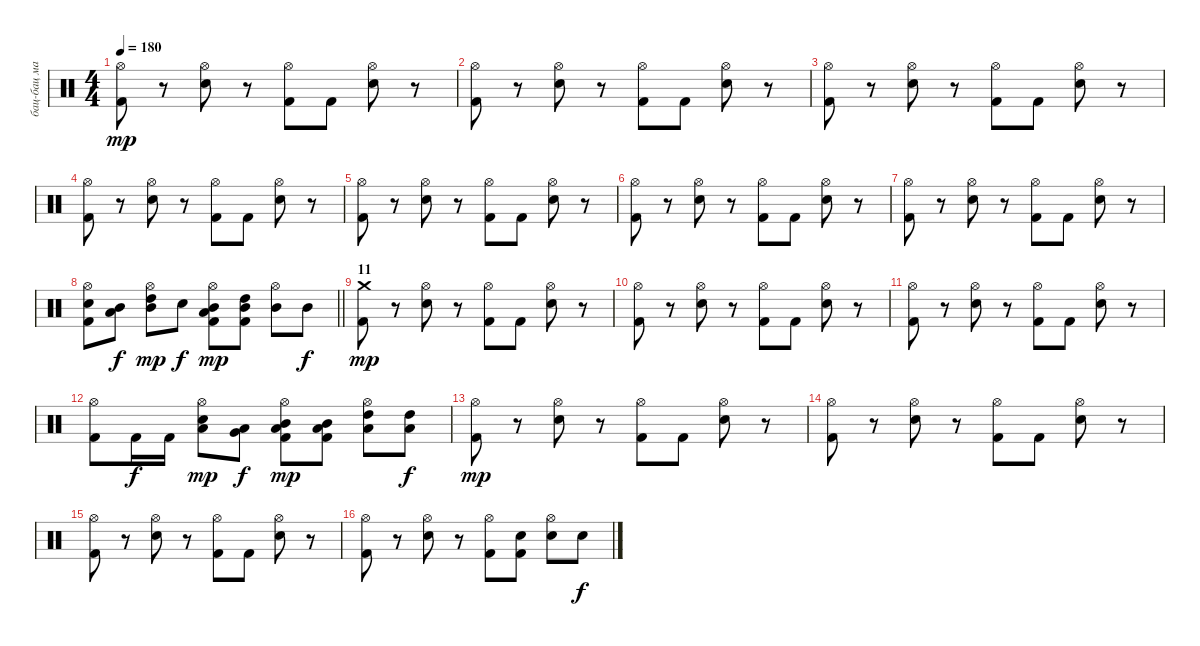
\track ("бац-бац машина" "бац-бац ма") {instrument percussion}
\staff {score}
\articulation defaults
\ts (4 4)
\tempo 180
\clef neutral
\ks c
("Hi-Hat (open)" "Kick (hit) 2").8{dy mp} r.8 ("Hi-Hat (open)" "Snare (hit) 2").8 r.8 ("Hi-Hat (open)" "Kick (hit) 2").8 "Kick (hit) 2".8 ("Hi-Hat (open)" "Snare (hit) 2").8 r.8 |
("Hi-Hat (open)" "Kick (hit) 2").8 r.8 ("Hi-Hat (open)" "Snare (hit) 2").8 r.8 ("Hi-Hat (open)" "Kick (hit) 2").8 "Kick (hit) 2".8 ("Hi-Hat (open)" "Snare (hit) 2").8 r.8 |
("Hi-Hat (open)" "Kick (hit) 2").8 r.8 ("Hi-Hat (open)" "Snare (hit) 2").8 r.8 ("Hi-Hat (open)" "Kick (hit) 2").8 "Kick (hit) 2".8 ("Hi-Hat (open)" "Snare (hit) 2").8 r.8 |
("Hi-Hat (open)" "Kick (hit) 2").8 r.8 ("Hi-Hat (open)" "Snare (hit) 2").8 r.8 ("Hi-Hat (open)" "Kick (hit) 2").8 "Kick (hit) 2".8 ("Hi-Hat (open)" "Snare (hit) 2").8 r.8 |
("Hi-Hat (open)" "Kick (hit) 2").8 r.8 ("Hi-Hat (open)" "Snare (hit) 2").8 r.8 ("Hi-Hat (open)" "Kick (hit) 2").8 "Kick (hit) 2".8 ("Hi-Hat (open)" "Snare (hit) 2").8 r.8 |
("Hi-Hat (open)" "Kick (hit) 2").8 r.8 ("Hi-Hat (open)" "Snare (hit) 2").8 r.8 ("Hi-Hat (open)" "Kick (hit) 2").8 "Kick (hit) 2".8 ("Hi-Hat (open)" "Snare (hit) 2").8 r.8 |
("Hi-Hat (open)" "Kick (hit) 2").8 r.8 ("Hi-Hat (open)" "Snare (hit) 2").8 r.8 ("Hi-Hat (open)" "Kick (hit) 2").8 "Kick (hit) 2".8 ("Hi-Hat (open)" "Snare (hit) 2").8 r.8 |
\barLineRight lightlight
("Hi-Hat (open)" "Snare (hit) 2" "Kick (hit) 2").8 ("Mid Tom (hit)" "Low Tom (hit)").8{dy f} ("Hi-Hat (open)" "High Tom (hit)" "Mid Tom (hit)").8{dy mp} "Snare (hit) 2".8{dy f} ("Hi-Hat (open)" "Mid Tom (hit)" "Low Tom (hit)" "Kick (hit) 2").8{dy mp} ("High Tom (hit)" "Mid Tom (hit)" "Kick (hit) 2").8 ("Hi-Hat (open)" "Mid Tom (hit)").8 "Mid Tom (hit)".8{dy f} |
\section ("" "11")
("Crash medium (hit)" "Kick (hit) 2").8{dy mp} r.8 ("Hi-Hat (open)" "Snare (hit) 2").8 r.8 ("Hi-Hat (open)" "Kick (hit) 2").8 "Kick (hit) 2".8 ("Hi-Hat (open)" "Snare (hit) 2").8 r.8 |
("Hi-Hat (open)" "Kick (hit) 2").8 r.8 ("Hi-Hat (open)" "Snare (hit) 2").8 r.8 ("Hi-Hat (open)" "Kick (hit) 2").8 "Kick (hit) 2".8 ("Hi-Hat (open)" "Snare (hit) 2").8 r.8 |
("Hi-Hat (open)" "Kick (hit) 2").8 r.8 ("Hi-Hat (open)" "Snare (hit) 2").8 r.8 ("Hi-Hat (open)" "Kick (hit) 2").8 "Kick (hit) 2".8 ("Hi-Hat (open)" "Snare (hit) 2").8 r.8 |
("Hi-Hat (open)" "Kick (hit) 2").8 "Kick (hit) 2".16{dy f} "Kick (hit) 2".16 ("Hi-Hat (open)" "Snare (hit) 2" "Low Tom (hit)").8{dy mp} ("Very Low Tom (hit)" "Low Tom (hit)").8{dy f} ("Hi-Hat (open)" "Mid Tom (hit)" "Low Tom (hit)" "Kick (hit) 2").8{dy mp} ("Mid Tom (hit)" "Low Tom (hit)" "Kick (hit) 2").8 ("Hi-Hat (open)" "High Tom (hit)" "Low Tom (hit)").8 ("High Tom (hit)" "Low Tom (hit)").8{dy f} |
("Hi-Hat (open)" "Kick (hit) 2").8{dy mp} r.8 ("Hi-Hat (open)" "Snare (hit) 2").8 r.8 ("Hi-Hat (open)" "Kick (hit) 2").8 "Kick (hit) 2".8 ("Hi-Hat (open)" "Snare (hit) 2").8 r.8 |
("Hi-Hat (open)" "Kick (hit) 2").8 r.8 ("Hi-Hat (open)" "Snare (hit) 2").8 r.8 ("Hi-Hat (open)" "Kick (hit) 2").8 "Kick (hit) 2".8 ("Hi-Hat (open)" "Snare (hit) 2").8 r.8 |
("Hi-Hat (open)" "Kick (hit) 2").8 r.8 ("Hi-Hat (open)" "Snare (hit) 2").8 r.8 ("Hi-Hat (open)" "Kick (hit) 2").8 "Kick (hit) 2".8 ("Hi-Hat (open)" "Snare (hit) 2").8 r.8 |
("Hi-Hat (open)" "Kick (hit) 2").8 r.8 ("Hi-Hat (open)" "Snare (hit) 2").8 r.8 ("Hi-Hat (open)" "Kick (hit) 2").8 ("Snare (hit) 2" "Kick (hit) 2").8 ("Hi-Hat (open)" "Snare (hit) 2").8 "Snare (hit) 2".8{dy f}
